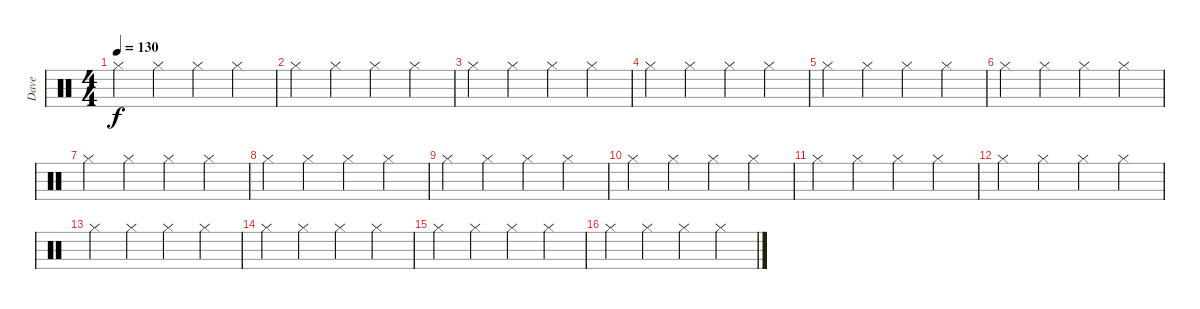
\track ("Dave" "Dave") {instrument percussion}
\staff {score}
\articulation defaults
\ts (4 4)
\tempo 130
\clef neutral
\ks c "Hi-Hat (closed)".4{dy f} "Hi-Hat (closed)".4 "Hi-Hat (closed)".4 "Hi-Hat (closed)".4
|
"Hi-Hat (closed)".4 "Hi-Hat (closed)".4 "Hi-Hat (closed)".4 "Hi-Hat (closed)".4 |
"Hi-Hat (closed)".4 "Hi-Hat (closed)".4 "Hi-Hat (closed)".4 "Hi-Hat (closed)".4 |
"Hi-Hat (closed)".4 "Hi-Hat (closed)".4 "Hi-Hat (closed)".4 "Hi-Hat (closed)".4 |
"Hi-Hat (closed)".4 "Hi-Hat (closed)".4 "Hi-Hat (closed)".4 "Hi-Hat (closed)".4 |
"Hi-Hat (closed)".4 "Hi-Hat (closed)".4 "Hi-Hat (closed)".4 "Hi-Hat (closed)".4 |
"Hi-Hat (closed)".4 "Hi-Hat (closed)".4 "Hi-Hat (closed)".4 "Hi-Hat (closed)".4 |
"Hi-Hat (closed)".4 "Hi-Hat (closed)".4 "Hi-Hat (closed)".4 "Hi-Hat (closed)".4 |
"Hi-Hat (closed)".4 "Hi-Hat (closed)".4 "Hi-Hat (closed)".4 "Hi-Hat (closed)".4 |
"Hi-Hat (closed)".4 "Hi-Hat (closed)".4 "Hi-Hat (closed)".4 "Hi-Hat (closed)".4 |
"Hi-Hat (closed)".4 "Hi-Hat (closed)".4 "Hi-Hat (closed)".4 "Hi-Hat (closed)".4 |
"Hi-Hat (closed)".4 "Hi-Hat (closed)".4 "Hi-Hat (closed)".4 "Hi-Hat (closed)".4 |
"Hi-Hat (closed)".4 "Hi-Hat (closed)".4 "Hi-Hat (closed)".4 "Hi-Hat (closed)".4 |
"Hi-Hat (closed)".4 "Hi-Hat (closed)".4 "Hi-Hat (closed)".4 "Hi-Hat (closed)".4 |
"Hi-Hat (closed)".4 "Hi-Hat (closed)".4 "Hi-Hat (closed)".4 "Hi-Hat (closed)".4 |
"Hi-Hat (closed)".4 "Hi-Hat (closed)".4 "Hi-Hat (closed)".4 "Hi-Hat (closed)".4
